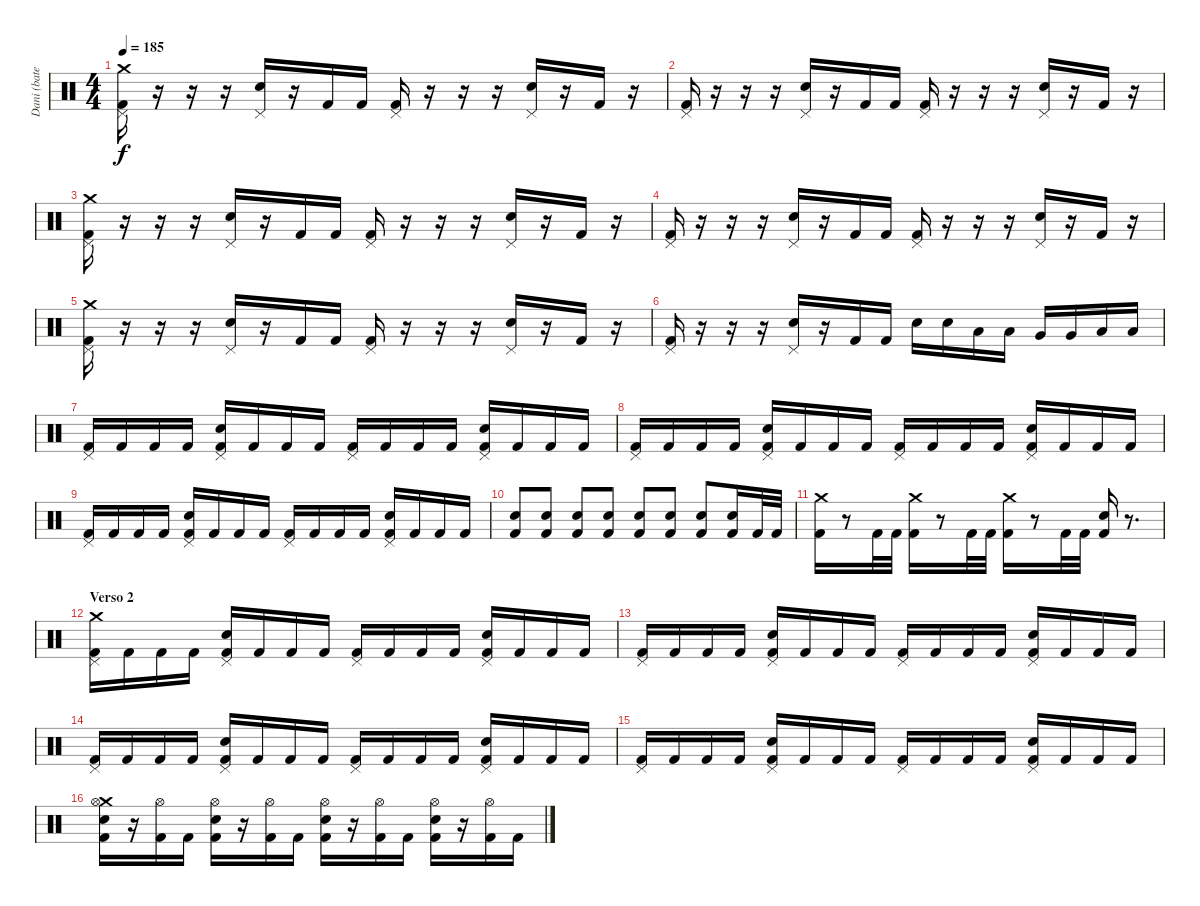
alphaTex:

\track ("Dani (batería)" "Dani (bate") {instrument percussion}
\staff {score}
\articulation defaults
\ts (4 4)
\tempo 185
\clef neutral
\ks c
("Crash medium (hit)" "Pedal Hi-Hat (hit)" "Kick (hit) 2").16{dy f} r.16 r.16 r.16 ("Pedal Hi-Hat (hit)" "Snare (hit) 2").16 r.16 "Kick (hit) 2".16 "Kick (hit) 2".16 ("Pedal Hi-Hat (hit)" "Kick (hit) 2").16 r.16 r.16 r.16 ("Pedal Hi-Hat (hit)" "Snare (hit) 2").16 r.16 "Kick (hit) 2".16 r.16 |
("Pedal Hi-Hat (hit)" "Kick (hit) 2").16 r.16 r.16 r.16 ("Pedal Hi-Hat (hit)" "Snare (hit) 2").16 r.16 "Kick (hit) 2".16 "Kick (hit) 2".16 ("Pedal Hi-Hat (hit)" "Kick (hit) 2").16 r.16 r.16 r.16 ("Pedal Hi-Hat (hit)" "Snare (hit) 2").16 r.16 "Kick (hit) 2".16 r.16 |
("Crash medium (hit)" "Pedal Hi-Hat (hit)" "Kick (hit) 2").16 r.16 r.16 r.16 ("Pedal Hi-Hat (hit)" "Snare (hit) 2").16 r.16 "Kick (hit) 2".16 "Kick (hit) 2".16 ("Pedal Hi-Hat (hit)" "Kick (hit) 2").16 r.16 r.16 r.16 ("Pedal Hi-Hat (hit)" "Snare (hit) 2").16 r.16 "Kick (hit) 2".16 r.16 |
("Pedal Hi-Hat (hit)" "Kick (hit) 2").16 r.16 r.16 r.16 ("Pedal Hi-Hat (hit)" "Snare (hit) 2").16 r.16 "Kick (hit) 2".16 "Kick (hit) 2".16 ("Pedal Hi-Hat (hit)" "Kick (hit) 2").16 r.16 r.16 r.16 ("Pedal Hi-Hat (hit)" "Snare (hit) 2").16 r.16 "Kick (hit) 2".16 r.16 |
("Crash medium (hit)" "Pedal Hi-Hat (hit)" "Kick (hit) 2").16 r.16 r.16 r.16 ("Pedal Hi-Hat (hit)" "Snare (hit) 2").16 r.16 "Kick (hit) 2".16 "Kick (hit) 2".16 ("Pedal Hi-Hat (hit)" "Kick (hit) 2").16 r.16 r.16 r.16 ("Pedal Hi-Hat (hit)" "Snare (hit) 2").16 r.16 "Kick (hit) 2".16 r.16 |
("Pedal Hi-Hat (hit)" "Kick (hit) 2").16 r.16 r.16 r.16 ("Pedal Hi-Hat (hit)" "Snare (hit) 2").16 r.16 "Kick (hit) 2".16 "Kick (hit) 2".16 "Snare (hit) 2".16 "Snare (hit) 2".16 "Low Tom (hit)".16 "Low Tom (hit)".16 "Very Low Tom (hit)".16 "Very Low Tom (hit)".16 "Low Floor Tom (hit)".16 "Low Floor Tom (hit)".16 |
("Pedal Hi-Hat (hit)" "Kick (hit) 2").16 "Kick (hit) 2".16 "Kick (hit) 2".16 "Kick (hit) 2".16 ("Pedal Hi-Hat (hit)" "Snare (hit) 2" "Kick (hit) 2").16 "Kick (hit) 2".16 "Kick (hit) 2".16 "Kick (hit) 2".16 ("Pedal Hi-Hat (hit)" "Kick (hit) 2").16 "Kick (hit) 2".16 "Kick (hit) 2".16 "Kick (hit) 2".16 ("Pedal Hi-Hat (hit)" "Snare (hit) 2" "Kick (hit) 2").16 "Kick (hit) 2".16 "Kick (hit) 2".16 "Kick (hit) 2".16 |
("Pedal Hi-Hat (hit)" "Kick (hit) 2").16 "Kick (hit) 2".16 "Kick (hit) 2".16 "Kick (hit) 2".16 ("Pedal Hi-Hat (hit)" "Snare (hit) 2" "Kick (hit) 2").16 "Kick (hit) 2".16 "Kick (hit) 2".16 "Kick (hit) 2".16 ("Pedal Hi-Hat (hit)" "Kick (hit) 2").16 "Kick (hit) 2".16 "Kick (hit) 2".16 "Kick (hit) 2".16 ("Pedal Hi-Hat (hit)" "Snare (hit) 2" "Kick (hit) 2").16 "Kick (hit) 2".16 "Kick (hit) 2".16 "Kick (hit) 2".16 |
("Pedal Hi-Hat (hit)" "Kick (hit) 2").16 "Kick (hit) 2".16 "Kick (hit) 2".16 "Kick (hit) 2".16 ("Pedal Hi-Hat (hit)" "Snare (hit) 2" "Kick (hit) 2").16 "Kick (hit) 2".16 "Kick (hit) 2".16 "Kick (hit) 2".16 ("Pedal Hi-Hat (hit)" "Kick (hit) 2").16 "Kick (hit) 2".16 "Kick (hit) 2".16 "Kick (hit) 2".16 ("Pedal Hi-Hat (hit)" "Snare (hit) 2" "Kick (hit) 2").16 "Kick (hit) 2".16 "Kick (hit) 2".16 "Kick (hit) 2".16 |
("Snare (hit) 2" "Kick (hit) 2").8 ("Snare (hit) 2" "Kick (hit) 2").8 ("Snare (hit) 2" "Kick (hit) 2").8 ("Snare (hit) 2" "Kick (hit) 2").8 ("Snare (hit) 2" "Kick (hit) 2").8 ("Snare (hit) 2" "Kick (hit) 2").8 ("Snare (hit) 2" "Kick (hit) 2").8 ("Snare (hit) 2" "Kick (hit) 2").16 "Kick (hit) 2".32 "Kick (hit) 2".32 |
("Crash medium (hit)" "Kick (hit) 2").16 r.8 "Kick (hit) 2".32 "Kick (hit) 2".32 ("Crash medium (hit)" "Kick (hit) 2").16 r.8 "Kick (hit) 2".32 "Kick (hit) 2".32 ("Crash medium (hit)" "Kick (hit) 2").16 r.8 "Kick (hit) 2".32 "Kick (hit) 2".32 ("Snare (hit) 2" "Kick (hit) 2").16 r.8{d} |
\section ("" "Verso 2")
("Crash medium (hit)" "Pedal Hi-Hat (hit)" "Kick (hit) 2").16 "Kick (hit) 2".16 "Kick (hit) 2".16 "Kick (hit) 2".16 ("Pedal Hi-Hat (hit)" "Snare (hit) 2" "Kick (hit) 2").16 "Kick (hit) 2".16 "Kick (hit) 2".16 "Kick (hit) 2".16 ("Pedal Hi-Hat (hit)" "Kick (hit) 2").16 "Kick (hit) 2".16 "Kick (hit) 2".16 "Kick (hit) 2".16 ("Pedal Hi-Hat (hit)" "Snare (hit) 2" "Kick (hit) 2").16 "Kick (hit) 2".16 "Kick (hit) 2".16 "Kick (hit) 2".16 |
("Pedal Hi-Hat (hit)" "Kick (hit) 2").16 "Kick (hit) 2".16 "Kick (hit) 2".16 "Kick (hit) 2".16 ("Pedal Hi-Hat (hit)" "Snare (hit) 2" "Kick (hit) 2").16 "Kick (hit) 2".16 "Kick (hit) 2".16 "Kick (hit) 2".16 ("Pedal Hi-Hat (hit)" "Kick (hit) 2").16 "Kick (hit) 2".16 "Kick (hit) 2".16 "Kick (hit) 2".16 ("Pedal Hi-Hat (hit)" "Snare (hit) 2" "Kick (hit) 2").16 "Kick (hit) 2".16 "Kick (hit) 2".16 "Kick (hit) 2".16 |
("Pedal Hi-Hat (hit)" "Kick (hit) 2").16 "Kick (hit) 2".16 "Kick (hit) 2".16 "Kick (hit) 2".16 ("Pedal Hi-Hat (hit)" "Snare (hit) 2" "Kick (hit) 2").16 "Kick (hit) 2".16 "Kick (hit) 2".16 "Kick (hit) 2".16 ("Pedal Hi-Hat (hit)" "Kick (hit) 2").16 "Kick (hit) 2".16 "Kick (hit) 2".16 "Kick (hit) 2".16 ("Pedal Hi-Hat (hit)" "Snare (hit) 2" "Kick (hit) 2").16 "Kick (hit) 2".16 "Kick (hit) 2".16 "Kick (hit) 2".16 |
("Pedal Hi-Hat (hit)" "Kick (hit) 2").16 "Kick (hit) 2".16 "Kick (hit) 2".16 "Kick (hit) 2".16 ("Pedal Hi-Hat (hit)" "Snare (hit) 2" "Kick (hit) 2").16 "Kick (hit) 2".16 "Kick (hit) 2".16 "Kick (hit) 2".16 ("Pedal Hi-Hat (hit)" "Kick (hit) 2").16 "Kick (hit) 2".16 "Kick (hit) 2".16 "Kick (hit) 2".16 ("Pedal Hi-Hat (hit)" "Snare (hit) 2" "Kick (hit) 2").16 "Kick (hit) 2".16 "Kick (hit) 2".16 "Kick (hit) 2".16 |
("Crash medium (hit)" "Hi-Hat (open)" "Snare (hit) 2" "Kick (hit) 2").16 r.16 ("Hi-Hat (open)" "Kick (hit) 2").16 "Kick (hit) 2".16 ("Hi-Hat (open)" "Snare (hit) 2" "Kick (hit) 2").16 r.16 ("Hi-Hat (open)" "Kick (hit) 2").16 "Kick (hit) 2".16 ("Hi-Hat (open)" "Snare (hit) 2" "Kick (hit) 2").16 r.16 ("Hi-Hat (open)" "Kick (hit) 2").16 "Kick (hit) 2".16 ("Hi-Hat (open)" "Snare (hit) 2" "Kick (hit) 2").16 r.16 ("Hi-Hat (open)" "Kick (hit) 2").16 "Kick (hit) 2".16
